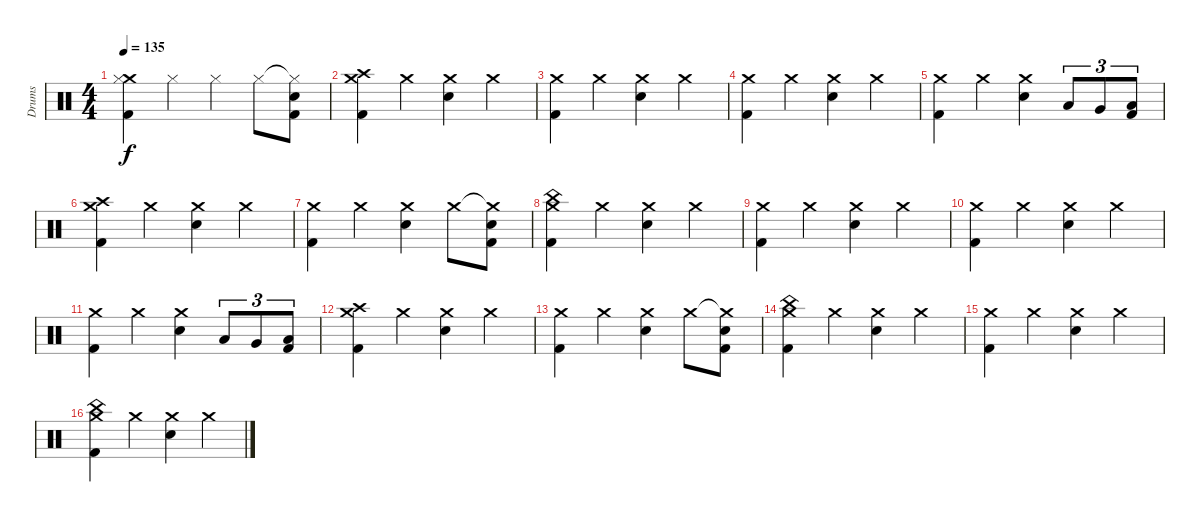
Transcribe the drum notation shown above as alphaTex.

\track ("Drums" "Drums") {instrument percussion}
\staff {score}
\articulation defaults
\ts (4 4)
\tempo 135
\clef neutral
\ks c
("Crash medium (hit)" "Hi-Hat (closed)" "Kick (hit) 2").4{dy f} "Hi-Hat (closed)".4 "Hi-Hat (closed)".4 "Hi-Hat (closed)".8 ("Hi-Hat (closed)"{t} "Electric Snare (hit)" "Kick (hit) 2").8 |
("Crash high (hit)" "Crash medium (hit)" "Kick (hit) 2").4 "Crash medium (hit)".4 ("Crash medium (hit)" "Electric Snare (hit)").4 "Crash medium (hit)".4 |
("Crash medium (hit)" "Kick (hit) 2").4 "Crash medium (hit)".4 ("Crash medium (hit)" "Electric Snare (hit)").4 "Crash medium (hit)".4 |
("Crash medium (hit)" "Kick (hit) 2").4 "Crash medium (hit)".4 ("Crash medium (hit)" "Electric Snare (hit)").4 "Crash medium (hit)".4 |
("Crash medium (hit)" "Kick (hit) 2").4 "Crash medium (hit)".4 ("Crash medium (hit)" "Electric Snare (hit)").4 "Low Tom (hit)".8{tu (3 2)} "Very Low Tom (hit)".8{tu (3 2)} ("Low Floor Tom (hit)" "Kick (hit) 2").8{tu (3 2)} |
("Crash high (hit)" "Crash medium (hit)" "Kick (hit) 2").4 "Crash medium (hit)".4 ("Crash medium (hit)" "Electric Snare (hit)").4 "Crash medium (hit)".4 |
("Crash medium (hit)" "Kick (hit) 2").4 "Crash medium (hit)".4 ("Crash medium (hit)" "Electric Snare (hit)").4 "Crash medium (hit)".8 ("Crash medium (hit)"{t} "Electric Snare (hit)" "Kick (hit) 2").8 |
("China (hit)" "Crash medium (hit)" "Kick (hit) 2").4 "Crash medium (hit)".4 ("Crash medium (hit)" "Electric Snare (hit)").4 "Crash medium (hit)".4 |
("Crash medium (hit)" "Kick (hit) 2").4 "Crash medium (hit)".4 ("Crash medium (hit)" "Electric Snare (hit)").4 "Crash medium (hit)".4 |
("Crash medium (hit)" "Kick (hit) 2").4 "Crash medium (hit)".4 ("Crash medium (hit)" "Electric Snare (hit)").4 "Crash medium (hit)".4 |
("Crash medium (hit)" "Kick (hit) 2").4 "Crash medium (hit)".4 ("Crash medium (hit)" "Electric Snare (hit)").4 "Low Tom (hit)".8{tu (3 2)} "Very Low Tom (hit)".8{tu (3 2)} ("Low Floor Tom (hit)" "Kick (hit) 2").8{tu (3 2)} |
("Crash high (hit)" "Crash medium (hit)" "Kick (hit) 2").4 "Crash medium (hit)".4 ("Crash medium (hit)" "Electric Snare (hit)").4 "Crash medium (hit)".4 |
("Crash medium (hit)" "Kick (hit) 2").4 "Crash medium (hit)".4 ("Crash medium (hit)" "Electric Snare (hit)").4 "Crash medium (hit)".8 ("Crash medium (hit)"{t} "Electric Snare (hit)" "Kick (hit) 2").8 |
("China (hit)" "Crash medium (hit)" "Kick (hit) 2").4 "Crash medium (hit)".4 ("Crash medium (hit)" "Electric Snare (hit)").4 "Crash medium (hit)".4 |
("Crash medium (hit)" "Kick (hit) 2").4 "Crash medium (hit)".4 ("Crash medium (hit)" "Electric Snare (hit)").4 "Crash medium (hit)".4 |
("China (hit)" "Crash medium (hit)" "Kick (hit) 2").4 "Crash medium (hit)".4 ("Crash medium (hit)" "Electric Snare (hit)").4 "Crash medium (hit)".4
